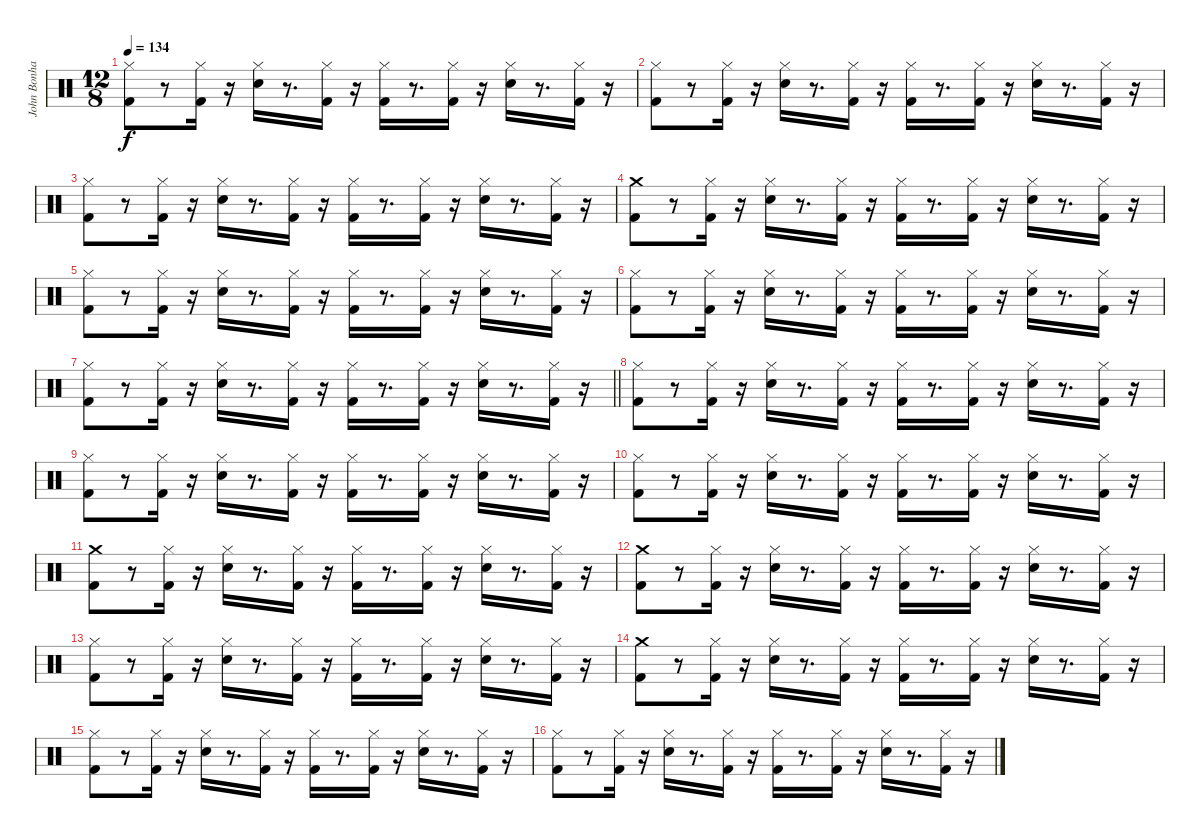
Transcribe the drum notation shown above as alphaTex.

\track ("John Bonham - Drums" "John Bonha") {instrument percussion}
\staff {score}
\articulation defaults
\ts (12 8)
\tempo 134
\clef neutral
\ks c
("Kick (hit) 2" "Hi-Hat (closed)").8{dy f} r.8 ("Kick (hit) 2" "Hi-Hat (closed)").16 r.16 ("Hi-Hat (closed)" "Electric Snare (hit)").16 r.8{d} ("Hi-Hat (closed)" "Kick (hit) 2").16 r.16 ("Hi-Hat (closed)" "Kick (hit) 2").16 r.8{d} ("Hi-Hat (closed)" "Kick (hit) 2").16 r.16 ("Hi-Hat (closed)" "Electric Snare (hit)").16 r.8{d} ("Hi-Hat (closed)" "Kick (hit) 2").16 r.16 |
("Kick (hit) 2" "Hi-Hat (closed)").8 r.8 ("Kick (hit) 2" "Hi-Hat (closed)").16 r.16 ("Hi-Hat (closed)" "Electric Snare (hit)").16 r.8{d} ("Hi-Hat (closed)" "Kick (hit) 2").16 r.16 ("Hi-Hat (closed)" "Kick (hit) 2").16 r.8{d} ("Hi-Hat (closed)" "Kick (hit) 2").16 r.16 ("Hi-Hat (closed)" "Electric Snare (hit)").16 r.8{d} ("Hi-Hat (closed)" "Kick (hit) 2").16 r.16 |
("Kick (hit) 2" "Hi-Hat (closed)").8 r.8 ("Kick (hit) 2" "Hi-Hat (closed)").16 r.16 ("Hi-Hat (closed)" "Electric Snare (hit)").16 r.8{d} ("Hi-Hat (closed)" "Kick (hit) 2").16 r.16 ("Hi-Hat (closed)" "Kick (hit) 2").16 r.8{d} ("Hi-Hat (closed)" "Kick (hit) 2").16 r.16 ("Hi-Hat (closed)" "Electric Snare (hit)").16 r.8{d} ("Hi-Hat (closed)" "Kick (hit) 2").16 r.16 |
("Kick (hit) 2" "Crash medium (hit)").8 r.8 ("Kick (hit) 2" "Hi-Hat (closed)").16 r.16 ("Hi-Hat (closed)" "Electric Snare (hit)").16 r.8{d} ("Hi-Hat (closed)" "Kick (hit) 2").16 r.16 ("Hi-Hat (closed)" "Kick (hit) 2").16 r.8{d} ("Hi-Hat (closed)" "Kick (hit) 2").16 r.16 ("Hi-Hat (closed)" "Electric Snare (hit)").16 r.8{d} ("Hi-Hat (closed)" "Kick (hit) 2").16 r.16 |
("Kick (hit) 2" "Hi-Hat (closed)").8 r.8 ("Kick (hit) 2" "Hi-Hat (closed)").16 r.16 ("Hi-Hat (closed)" "Electric Snare (hit)").16 r.8{d} ("Hi-Hat (closed)" "Kick (hit) 2").16 r.16 ("Hi-Hat (closed)" "Kick (hit) 2").16 r.8{d} ("Hi-Hat (closed)" "Kick (hit) 2").16 r.16 ("Hi-Hat (closed)" "Electric Snare (hit)").16 r.8{d} ("Hi-Hat (closed)" "Kick (hit) 2").16 r.16 |
("Kick (hit) 2" "Hi-Hat (closed)").8 r.8 ("Kick (hit) 2" "Hi-Hat (closed)").16 r.16 ("Hi-Hat (closed)" "Electric Snare (hit)").16 r.8{d} ("Hi-Hat (closed)" "Kick (hit) 2").16 r.16 ("Hi-Hat (closed)" "Kick (hit) 2").16 r.8{d} ("Hi-Hat (closed)" "Kick (hit) 2").16 r.16 ("Hi-Hat (closed)" "Electric Snare (hit)").16 r.8{d} ("Hi-Hat (closed)" "Kick (hit) 2").16 r.16 |
\barLineRight lightlight
("Kick (hit) 2" "Hi-Hat (closed)").8 r.8 ("Kick (hit) 2" "Hi-Hat (closed)").16 r.16 ("Hi-Hat (closed)" "Electric Snare (hit)").16 r.8{d} ("Hi-Hat (closed)" "Kick (hit) 2").16 r.16 ("Hi-Hat (closed)" "Kick (hit) 2").16 r.8{d} ("Hi-Hat (closed)" "Kick (hit) 2").16 r.16 ("Hi-Hat (closed)" "Electric Snare (hit)").16 r.8{d} ("Hi-Hat (closed)" "Kick (hit) 2").16 r.16 |
("Kick (hit) 2" "Hi-Hat (closed)").8 r.8 ("Kick (hit) 2" "Hi-Hat (closed)").16 r.16 ("Hi-Hat (closed)" "Electric Snare (hit)").16 r.8{d} ("Hi-Hat (closed)" "Kick (hit) 2").16 r.16 ("Hi-Hat (closed)" "Kick (hit) 2").16 r.8{d} ("Hi-Hat (closed)" "Kick (hit) 2").16 r.16 ("Hi-Hat (closed)" "Electric Snare (hit)").16 r.8{d} ("Hi-Hat (closed)" "Kick (hit) 2").16 r.16 |
("Kick (hit) 2" "Hi-Hat (closed)").8 r.8 ("Kick (hit) 2" "Hi-Hat (closed)").16 r.16 ("Hi-Hat (closed)" "Electric Snare (hit)").16 r.8{d} ("Hi-Hat (closed)" "Kick (hit) 2").16 r.16 ("Hi-Hat (closed)" "Kick (hit) 2").16 r.8{d} ("Hi-Hat (closed)" "Kick (hit) 2").16 r.16 ("Hi-Hat (closed)" "Electric Snare (hit)").16 r.8{d} ("Hi-Hat (closed)" "Kick (hit) 2").16 r.16 |
("Kick (hit) 2" "Hi-Hat (closed)").8 r.8 ("Kick (hit) 2" "Hi-Hat (closed)").16 r.16 ("Hi-Hat (closed)" "Electric Snare (hit)").16 r.8{d} ("Hi-Hat (closed)" "Kick (hit) 2").16 r.16 ("Hi-Hat (closed)" "Kick (hit) 2").16 r.8{d} ("Hi-Hat (closed)" "Kick (hit) 2").16 r.16 ("Hi-Hat (closed)" "Electric Snare (hit)").16 r.8{d} ("Hi-Hat (closed)" "Kick (hit) 2").16 r.16 |
("Kick (hit) 2" "Crash medium (hit)").8 r.8 ("Kick (hit) 2" "Hi-Hat (closed)").16 r.16 ("Hi-Hat (closed)" "Electric Snare (hit)").16 r.8{d} ("Hi-Hat (closed)" "Kick (hit) 2").16 r.16 ("Hi-Hat (closed)" "Kick (hit) 2").16 r.8{d} ("Hi-Hat (closed)" "Kick (hit) 2").16 r.16 ("Hi-Hat (closed)" "Electric Snare (hit)").16 r.8{d} ("Hi-Hat (closed)" "Kick (hit) 2").16 r.16 |
("Kick (hit) 2" "Crash medium (hit)").8 r.8 ("Kick (hit) 2" "Hi-Hat (closed)").16 r.16 ("Hi-Hat (closed)" "Electric Snare (hit)").16 r.8{d} ("Hi-Hat (closed)" "Kick (hit) 2").16 r.16 ("Hi-Hat (closed)" "Kick (hit) 2").16 r.8{d} ("Hi-Hat (closed)" "Kick (hit) 2").16 r.16 ("Hi-Hat (closed)" "Electric Snare (hit)").16 r.8{d} ("Hi-Hat (closed)" "Kick (hit) 2").16 r.16 |
("Kick (hit) 2" "Hi-Hat (closed)").8 r.8 ("Kick (hit) 2" "Hi-Hat (closed)").16 r.16 ("Hi-Hat (closed)" "Electric Snare (hit)").16 r.8{d} ("Hi-Hat (closed)" "Kick (hit) 2").16 r.16 ("Hi-Hat (closed)" "Kick (hit) 2").16 r.8{d} ("Hi-Hat (closed)" "Kick (hit) 2").16 r.16 ("Hi-Hat (closed)" "Electric Snare (hit)").16 r.8{d} ("Hi-Hat (closed)" "Kick (hit) 2").16 r.16 |
("Kick (hit) 2" "Crash medium (hit)").8 r.8 ("Kick (hit) 2" "Hi-Hat (closed)").16 r.16 ("Hi-Hat (closed)" "Electric Snare (hit)").16 r.8{d} ("Hi-Hat (closed)" "Kick (hit) 2").16 r.16 ("Hi-Hat (closed)" "Kick (hit) 2").16 r.8{d} ("Hi-Hat (closed)" "Kick (hit) 2").16 r.16 ("Hi-Hat (closed)" "Electric Snare (hit)").16 r.8{d} ("Hi-Hat (closed)" "Kick (hit) 2").16 r.16 |
("Kick (hit) 2" "Hi-Hat (closed)").8 r.8 ("Kick (hit) 2" "Hi-Hat (closed)").16 r.16 ("Hi-Hat (closed)" "Electric Snare (hit)").16 r.8{d} ("Hi-Hat (closed)" "Kick (hit) 2").16 r.16 ("Hi-Hat (closed)" "Kick (hit) 2").16 r.8{d} ("Hi-Hat (closed)" "Kick (hit) 2").16 r.16 ("Hi-Hat (closed)" "Electric Snare (hit)").16 r.8{d} ("Hi-Hat (closed)" "Kick (hit) 2").16 r.16 |
("Kick (hit) 2" "Hi-Hat (closed)").8 r.8 ("Kick (hit) 2" "Hi-Hat (closed)").16 r.16 ("Hi-Hat (closed)" "Electric Snare (hit)").16 r.8{d} ("Hi-Hat (closed)" "Kick (hit) 2").16 r.16 ("Hi-Hat (closed)" "Kick (hit) 2").16 r.8{d} ("Hi-Hat (closed)" "Kick (hit) 2").16 r.16 ("Hi-Hat (closed)" "Electric Snare (hit)").16 r.8{d} ("Hi-Hat (closed)" "Kick (hit) 2").16 r.16
